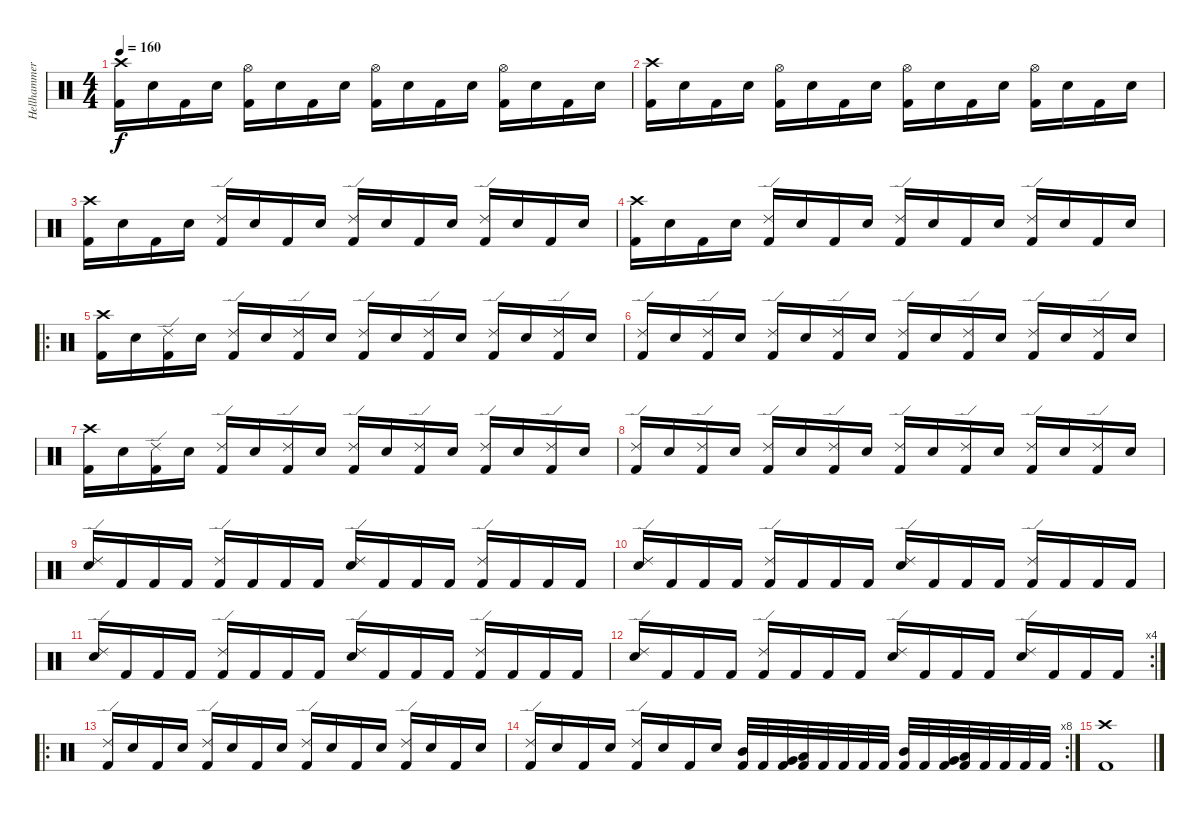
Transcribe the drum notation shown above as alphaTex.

\track ("Hellhammer" "Hellhammer") {instrument percussion}
\staff {score}
\articulation defaults
\ts (4 4)
\tempo 160
\clef neutral
\ks c
("Kick (hit) 2" "Crash high (hit)").16{dy f} "Snare (hit) 2".16 "Kick (hit) 2".16 "Snare (hit) 2".16 ("Kick (hit) 2" "Hi-Hat (open)").16 "Snare (hit) 2".16 "Kick (hit) 2".16 "Snare (hit) 2".16 ("Kick (hit) 2" "Hi-Hat (open)").16 "Snare (hit) 2".16 "Kick (hit) 2".16 "Snare (hit) 2".16 ("Kick (hit) 2" "Hi-Hat (open)").16 "Snare (hit) 2".16 "Kick (hit) 2".16 "Snare (hit) 2".16 |
("Kick (hit) 2" "Crash high (hit)").16 "Snare (hit) 2".16 "Kick (hit) 2".16 "Snare (hit) 2".16 ("Kick (hit) 2" "Hi-Hat (open)").16 "Snare (hit) 2".16 "Kick (hit) 2".16 "Snare (hit) 2".16 ("Kick (hit) 2" "Hi-Hat (open)").16 "Snare (hit) 2".16 "Kick (hit) 2".16 "Snare (hit) 2".16 ("Kick (hit) 2" "Hi-Hat (open)").16 "Snare (hit) 2".16 "Kick (hit) 2".16 "Snare (hit) 2".16 |
("Kick (hit) 2" "Crash high (hit)").16 "Snare (hit) 2".16 "Kick (hit) 2".16 "Snare (hit) 2".16 ("Kick (hit) 2" "Ride (edge) 2").16 "Snare (hit) 2".16 "Kick (hit) 2".16 "Snare (hit) 2".16 ("Kick (hit) 2" "Ride (edge) 2").16 "Snare (hit) 2".16 "Kick (hit) 2".16 "Snare (hit) 2".16 ("Kick (hit) 2" "Ride (edge) 2").16 "Snare (hit) 2".16 "Kick (hit) 2".16 "Snare (hit) 2".16 |
("Kick (hit) 2" "Crash high (hit)").16 "Snare (hit) 2".16 "Kick (hit) 2".16 "Snare (hit) 2".16 ("Kick (hit) 2" "Ride (edge) 2").16 "Snare (hit) 2".16 "Kick (hit) 2".16 "Snare (hit) 2".16 ("Kick (hit) 2" "Ride (edge) 2").16 "Snare (hit) 2".16 "Kick (hit) 2".16 "Snare (hit) 2".16 ("Kick (hit) 2" "Ride (edge) 2").16 "Snare (hit) 2".16 "Kick (hit) 2".16 "Snare (hit) 2".16 |
\ro
("Crash high (hit)" "Kick (hit) 2").16 "Snare (hit) 2".16 ("Ride (edge) 2" "Kick (hit) 2").16 "Snare (hit) 2".16 ("Ride (edge) 2" "Kick (hit) 2").16 "Snare (hit) 2".16 ("Ride (edge) 2" "Kick (hit) 2").16 "Snare (hit) 2".16 ("Ride (edge) 2" "Kick (hit) 2").16 "Snare (hit) 2".16 ("Ride (edge) 2" "Kick (hit) 2").16 "Snare (hit) 2".16 ("Ride (edge) 2" "Kick (hit) 2").16 "Snare (hit) 2".16 ("Ride (edge) 2" "Kick (hit) 2").16 "Snare (hit) 2".16 |
("Ride (edge) 2" "Kick (hit) 2").16 "Snare (hit) 2".16 ("Ride (edge) 2" "Kick (hit) 2").16 "Snare (hit) 2".16 ("Ride (edge) 2" "Kick (hit) 2").16 "Snare (hit) 2".16 ("Ride (edge) 2" "Kick (hit) 2").16 "Snare (hit) 2".16 ("Ride (edge) 2" "Kick (hit) 2").16 "Snare (hit) 2".16 ("Ride (edge) 2" "Kick (hit) 2").16 "Snare (hit) 2".16 ("Ride (edge) 2" "Kick (hit) 2").16 "Snare (hit) 2".16 ("Ride (edge) 2" "Kick (hit) 2").16 "Snare (hit) 2".16 |
("Crash high (hit)" "Kick (hit) 2").16 "Snare (hit) 2".16 ("Ride (edge) 2" "Kick (hit) 2").16 "Snare (hit) 2".16 ("Ride (edge) 2" "Kick (hit) 2").16 "Snare (hit) 2".16 ("Ride (edge) 2" "Kick (hit) 2").16 "Snare (hit) 2".16 ("Ride (edge) 2" "Kick (hit) 2").16 "Snare (hit) 2".16 ("Ride (edge) 2" "Kick (hit) 2").16 "Snare (hit) 2".16 ("Ride (edge) 2" "Kick (hit) 2").16 "Snare (hit) 2".16 ("Ride (edge) 2" "Kick (hit) 2").16 "Snare (hit) 2".16 |
("Ride (edge) 2" "Kick (hit) 2").16 "Snare (hit) 2".16 ("Ride (edge) 2" "Kick (hit) 2").16 "Snare (hit) 2".16 ("Ride (edge) 2" "Kick (hit) 2").16 "Snare (hit) 2".16 ("Ride (edge) 2" "Kick (hit) 2").16 "Snare (hit) 2".16 ("Ride (edge) 2" "Kick (hit) 2").16 "Snare (hit) 2".16 ("Ride (edge) 2" "Kick (hit) 2").16 "Snare (hit) 2".16 ("Ride (edge) 2" "Kick (hit) 2").16 "Snare (hit) 2".16 ("Ride (edge) 2" "Kick (hit) 2").16 "Snare (hit) 2".16 |
("Snare (hit) 2" "Ride (edge) 2").16 "Kick (hit) 2".16 "Kick (hit) 2".16 "Kick (hit) 2".16 ("Kick (hit) 2" "Ride (edge) 2").16 "Kick (hit) 2".16 "Kick (hit) 2".16 "Kick (hit) 2".16 ("Snare (hit) 2" "Ride (edge) 2").16 "Kick (hit) 2".16 "Kick (hit) 2".16 "Kick (hit) 2".16 ("Kick (hit) 2" "Ride (edge) 2").16 "Kick (hit) 2".16 "Kick (hit) 2".16 "Kick (hit) 2".16 |
("Snare (hit) 2" "Ride (edge) 2").16 "Kick (hit) 2".16 "Kick (hit) 2".16 "Kick (hit) 2".16 ("Kick (hit) 2" "Ride (edge) 2").16 "Kick (hit) 2".16 "Kick (hit) 2".16 "Kick (hit) 2".16 ("Snare (hit) 2" "Ride (edge) 2").16 "Kick (hit) 2".16 "Kick (hit) 2".16 "Kick (hit) 2".16 ("Kick (hit) 2" "Ride (edge) 2").16 "Kick (hit) 2".16 "Kick (hit) 2".16 "Kick (hit) 2".16 |
("Snare (hit) 2" "Ride (edge) 2").16 "Kick (hit) 2".16 "Kick (hit) 2".16 "Kick (hit) 2".16 ("Kick (hit) 2" "Ride (edge) 2").16 "Kick (hit) 2".16 "Kick (hit) 2".16 "Kick (hit) 2".16 ("Snare (hit) 2" "Ride (edge) 2").16 "Kick (hit) 2".16 "Kick (hit) 2".16 "Kick (hit) 2".16 ("Kick (hit) 2" "Ride (edge) 2").16 "Kick (hit) 2".16 "Kick (hit) 2".16 "Kick (hit) 2".16 |
\rc 4
("Snare (hit) 2" "Ride (edge) 2").16 "Kick (hit) 2".16 "Kick (hit) 2".16 "Kick (hit) 2".16 ("Kick (hit) 2" "Ride (edge) 2").16 "Kick (hit) 2".16 "Kick (hit) 2".16 "Kick (hit) 2".16 ("Snare (hit) 2" "Ride (edge) 2").16 "Kick (hit) 2".16 "Kick (hit) 2".16 "Kick (hit) 2".16 ("Snare (hit) 2" "Ride (edge) 2").16 "Kick (hit) 2".16 "Kick (hit) 2".16 "Kick (hit) 2".16 |
\ro
("Kick (hit) 2" "Ride (edge) 2").16 "Electric Snare (hit)".16 "Kick (hit) 2".16 "Electric Snare (hit)".16 ("Kick (hit) 2" "Ride (edge) 2").16 "Electric Snare (hit)".16 "Kick (hit) 2".16 "Electric Snare (hit)".16 ("Kick (hit) 2" "Ride (edge) 2").16 "Electric Snare (hit)".16 "Kick (hit) 2".16 "Electric Snare (hit)".16 ("Kick (hit) 2" "Ride (edge) 2").16 "Electric Snare (hit)".16 "Kick (hit) 2".16 "Electric Snare (hit)".16 |
\rc 8
("Kick (hit) 2" "Ride (edge) 2").16 "Electric Snare (hit)".16 "Kick (hit) 2".16 "Electric Snare (hit)".16 ("Kick (hit) 2" "Ride (edge) 2").16 "Electric Snare (hit)".16 "Kick (hit) 2".16 "Electric Snare (hit)".16 ("Kick (hit) 2" "Mid Tom (hit)").32 "Kick (hit) 2".32 ("Kick (hit) 2" "Very Low Tom (hit)").32 ("Kick (hit) 2" "Low Floor Tom (hit)").32 "Kick (hit) 2".32 "Kick (hit) 2".32 "Kick (hit) 2".32 "Kick (hit) 2".32 ("Kick (hit) 2" "Mid Tom (hit)").32 "Kick (hit) 2".32 ("Kick (hit) 2" "Very Low Tom (hit)").32 ("Kick (hit) 2" "Low Floor Tom (hit)").32 "Kick (hit) 2".32 "Kick (hit) 2".32 "Kick (hit) 2".32 "Kick (hit) 2".32 |
("Crash high (hit)" "Kick (hit) 2").1
